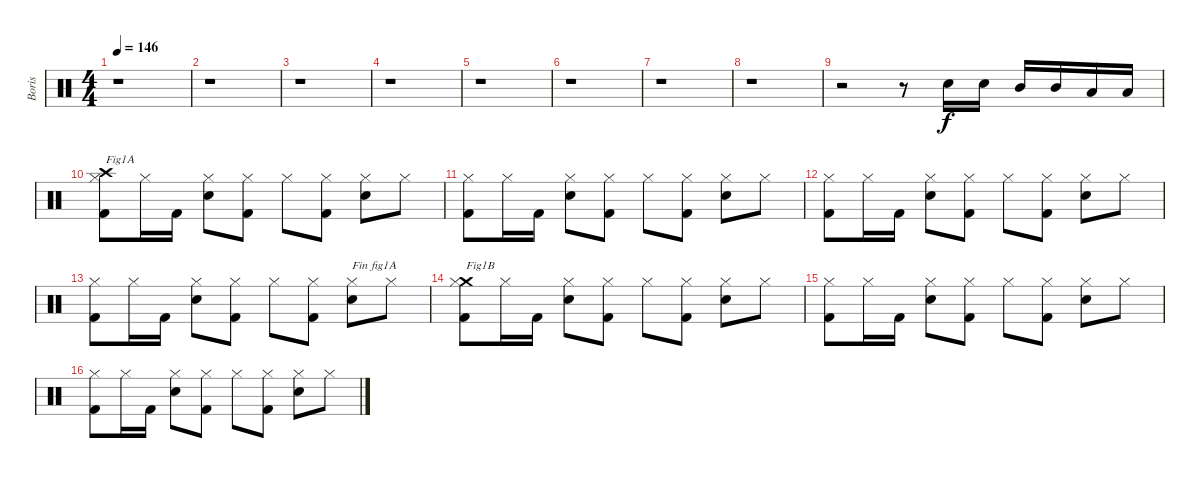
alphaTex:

\track ("Boris" "Boris") {instrument percussion}
\staff {score}
\articulation defaults
\ts (4 4)
\tempo 146
\clef neutral
\ks c
r.1{dy f} |
r.1 |
r.1 |
r.1 |
r.1 |
r.1 |
r.1 |
r.1 |
r.2 r.8 "Electric Snare (hit)".16 "Electric Snare (hit)".16 "Mid Tom (hit)".16 "Mid Tom (hit)".16 "Low Tom (hit)".16 "Low Tom (hit)".16 |
("Kick (hit) 2" "Crash high (hit)" "Hi-Hat (closed)").8{txt "Fig1A"} "Hi-Hat (closed)".16 "Kick (hit) 2".16 ("Electric Snare (hit)" "Hi-Hat (closed)").8 ("Kick (hit) 2" "Hi-Hat (closed)").8 "Hi-Hat (closed)".8 ("Kick (hit) 2" "Hi-Hat (closed)").8 ("Electric Snare (hit)" "Hi-Hat (closed)").8 "Hi-Hat (closed)".8 |
("Kick (hit) 2" "Hi-Hat (closed)").8 "Hi-Hat (closed)".16 "Kick (hit) 2".16 ("Electric Snare (hit)" "Hi-Hat (closed)").8 ("Kick (hit) 2" "Hi-Hat (closed)").8 "Hi-Hat (closed)".8 ("Kick (hit) 2" "Hi-Hat (closed)").8 ("Electric Snare (hit)" "Hi-Hat (closed)").8 "Hi-Hat (closed)".8 |
("Kick (hit) 2" "Hi-Hat (closed)").8 "Hi-Hat (closed)".16 "Kick (hit) 2".16 ("Electric Snare (hit)" "Hi-Hat (closed)").8 ("Kick (hit) 2" "Hi-Hat (closed)").8 "Hi-Hat (closed)".8 ("Kick (hit) 2" "Hi-Hat (closed)").8 ("Electric Snare (hit)" "Hi-Hat (closed)").8 "Hi-Hat (closed)".8 |
("Kick (hit) 2" "Hi-Hat (closed)").8 "Hi-Hat (closed)".16 "Kick (hit) 2".16 ("Electric Snare (hit)" "Hi-Hat (closed)").8 ("Kick (hit) 2" "Hi-Hat (closed)").8 "Hi-Hat (closed)".8 ("Kick (hit) 2" "Hi-Hat (closed)").8 ("Electric Snare (hit)" "Hi-Hat (closed)").8{txt "Fin fig1A"} "Hi-Hat (closed)".8 |
("Kick (hit) 2" "Crash medium (hit)" "Hi-Hat (closed)").8{txt "Fig1B"} "Hi-Hat (closed)".16 "Kick (hit) 2".16 ("Electric Snare (hit)" "Hi-Hat (closed)").8 ("Kick (hit) 2" "Hi-Hat (closed)").8 "Hi-Hat (closed)".8 ("Kick (hit) 2" "Hi-Hat (closed)").8 ("Electric Snare (hit)" "Hi-Hat (closed)").8 "Hi-Hat (closed)".8 |
("Kick (hit) 2" "Hi-Hat (closed)").8 "Hi-Hat (closed)".16 "Kick (hit) 2".16 ("Electric Snare (hit)" "Hi-Hat (closed)").8 ("Kick (hit) 2" "Hi-Hat (closed)").8 "Hi-Hat (closed)".8 ("Kick (hit) 2" "Hi-Hat (closed)").8 ("Electric Snare (hit)" "Hi-Hat (closed)").8 "Hi-Hat (closed)".8 |
("Kick (hit) 2" "Hi-Hat (closed)").8 "Hi-Hat (closed)".16 "Kick (hit) 2".16 ("Electric Snare (hit)" "Hi-Hat (closed)").8 ("Kick (hit) 2" "Hi-Hat (closed)").8 "Hi-Hat (closed)".8 ("Kick (hit) 2" "Hi-Hat (closed)").8 ("Electric Snare (hit)" "Hi-Hat (closed)").8 "Hi-Hat (closed)".8
